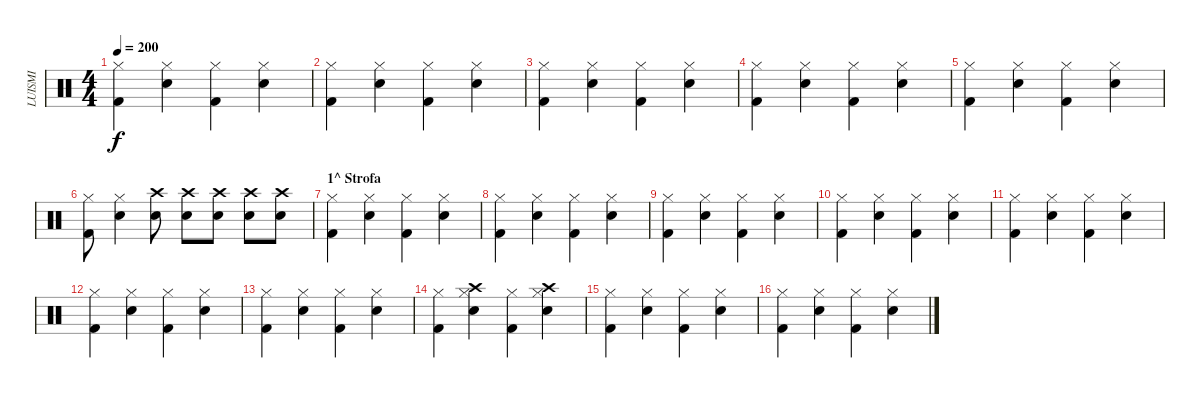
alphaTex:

\track ("LUISMI" "LUISMI") {instrument percussion}
\staff {score}
\articulation defaults
\ts (4 4)
\tempo 200
\clef neutral
\ks c
("Hi-Hat (closed)" "Kick (hit) 2").4{dy f} ("Hi-Hat (closed)" "Snare (hit) 2").4 ("Hi-Hat (closed)" "Kick (hit) 2").4 ("Hi-Hat (closed)" "Snare (hit) 2").4 |
("Hi-Hat (closed)" "Kick (hit) 2").4 ("Hi-Hat (closed)" "Snare (hit) 2").4 ("Hi-Hat (closed)" "Kick (hit) 2").4 ("Hi-Hat (closed)" "Snare (hit) 2").4 |
("Hi-Hat (closed)" "Kick (hit) 2").4 ("Hi-Hat (closed)" "Snare (hit) 2").4 ("Hi-Hat (closed)" "Kick (hit) 2").4 ("Hi-Hat (closed)" "Snare (hit) 2").4 |
("Hi-Hat (closed)" "Kick (hit) 2").4 ("Hi-Hat (closed)" "Snare (hit) 2").4 ("Hi-Hat (closed)" "Kick (hit) 2").4 ("Hi-Hat (closed)" "Snare (hit) 2").4 |
("Hi-Hat (closed)" "Kick (hit) 2").4 ("Hi-Hat (closed)" "Snare (hit) 2").4 ("Hi-Hat (closed)" "Kick (hit) 2").4 ("Hi-Hat (closed)" "Snare (hit) 2").4 |
("Hi-Hat (closed)" "Kick (hit) 2").8 ("Hi-Hat (closed)" "Snare (hit) 2").4 ("Snare (hit) 2" "Crash high (hit)").8 ("Snare (hit) 2" "Crash high (hit)").8 ("Snare (hit) 2" "Crash high (hit)").8 ("Snare (hit) 2" "Crash high (hit)").8 ("Snare (hit) 2" "Crash high (hit)").8 |
\section ("" "1^ Strofa")
("Hi-Hat (closed)" "Kick (hit) 2").4 ("Hi-Hat (closed)" "Snare (hit) 2").4 ("Hi-Hat (closed)" "Kick (hit) 2").4 ("Hi-Hat (closed)" "Snare (hit) 2").4 |
("Hi-Hat (closed)" "Kick (hit) 2").4 ("Hi-Hat (closed)" "Snare (hit) 2").4 ("Hi-Hat (closed)" "Kick (hit) 2").4 ("Hi-Hat (closed)" "Snare (hit) 2").4 |
("Hi-Hat (closed)" "Kick (hit) 2").4 ("Hi-Hat (closed)" "Snare (hit) 2").4 ("Hi-Hat (closed)" "Kick (hit) 2").4 ("Hi-Hat (closed)" "Snare (hit) 2").4 |
("Hi-Hat (closed)" "Kick (hit) 2").4 ("Hi-Hat (closed)" "Snare (hit) 2").4 ("Hi-Hat (closed)" "Kick (hit) 2").4 ("Hi-Hat (closed)" "Snare (hit) 2").4 |
("Hi-Hat (closed)" "Kick (hit) 2").4 ("Hi-Hat (closed)" "Snare (hit) 2").4 ("Hi-Hat (closed)" "Kick (hit) 2").4 ("Hi-Hat (closed)" "Snare (hit) 2").4 |
("Hi-Hat (closed)" "Kick (hit) 2").4 ("Hi-Hat (closed)" "Snare (hit) 2").4 ("Hi-Hat (closed)" "Kick (hit) 2").4 ("Hi-Hat (closed)" "Snare (hit) 2").4 |
("Hi-Hat (closed)" "Kick (hit) 2").4 ("Hi-Hat (closed)" "Snare (hit) 2").4 ("Hi-Hat (closed)" "Kick (hit) 2").4 ("Hi-Hat (closed)" "Snare (hit) 2").4 |
("Hi-Hat (closed)" "Kick (hit) 2").4 ("Hi-Hat (closed)" "Snare (hit) 2" "Crash high (hit)").4 ("Hi-Hat (closed)" "Kick (hit) 2").4 ("Hi-Hat (closed)" "Snare (hit) 2" "Crash high (hit)").4 |
("Hi-Hat (closed)" "Kick (hit) 2").4 ("Hi-Hat (closed)" "Snare (hit) 2").4 ("Hi-Hat (closed)" "Kick (hit) 2").4 ("Hi-Hat (closed)" "Snare (hit) 2").4 |
("Hi-Hat (closed)" "Kick (hit) 2").4 ("Hi-Hat (closed)" "Snare (hit) 2").4 ("Hi-Hat (closed)" "Kick (hit) 2").4 ("Hi-Hat (closed)" "Snare (hit) 2").4
